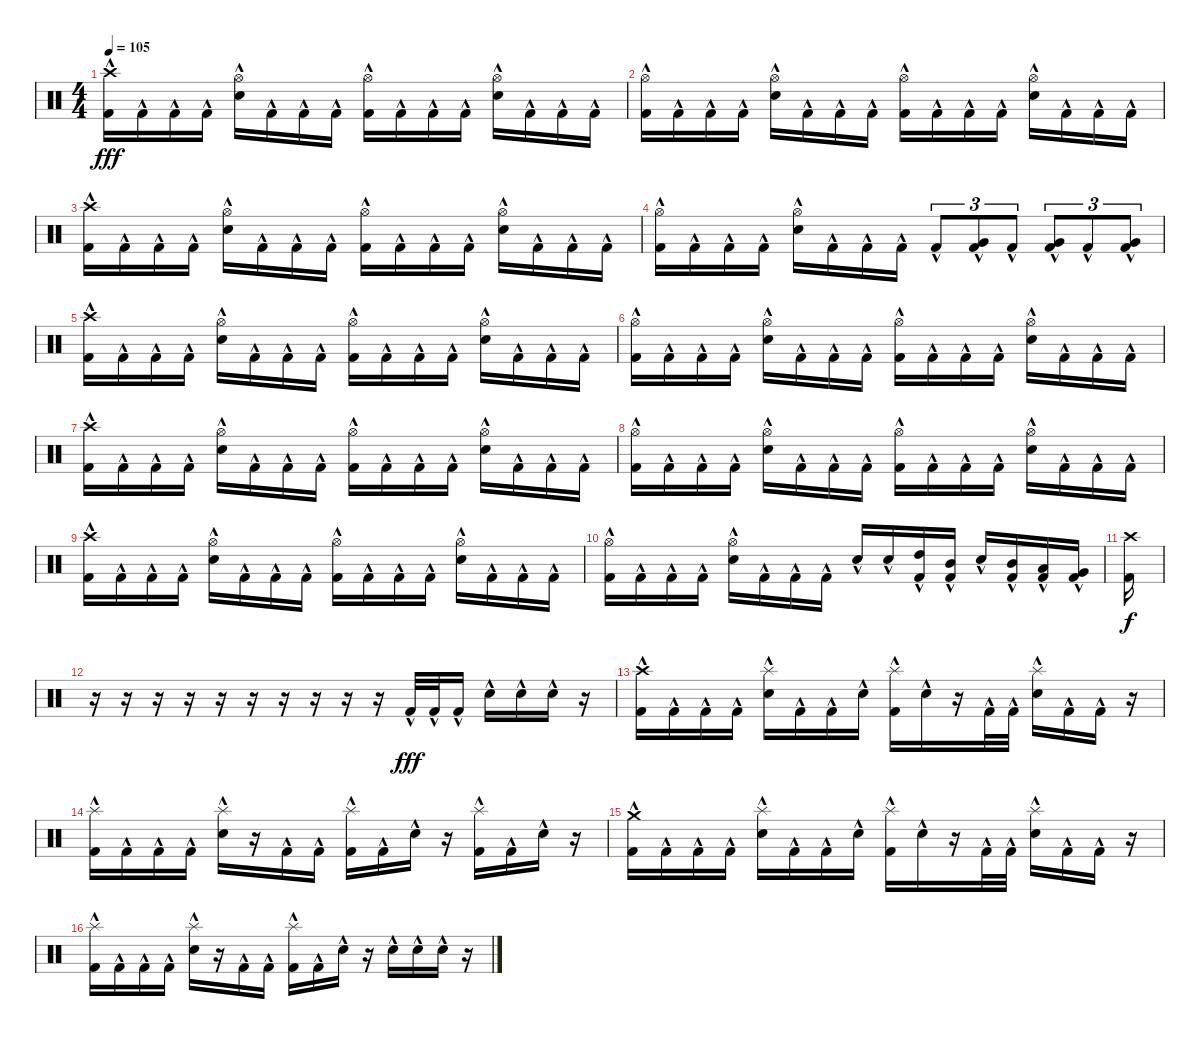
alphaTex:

\track "" {instrument percussion}
\staff {score}
\articulation defaults
\ts (4 4)
\tempo 105
\clef neutral
\ks c
("Kick (hit) 2"{hac} "Crash high (hit)").16{dy fff} "Kick (hit) 2"{hac}.16 "Kick (hit) 2"{hac}.16 "Kick (hit) 2"{hac}.16 ("Electric Snare (hit)"{hac} "Hi-Hat (open)").16 "Kick (hit) 2"{hac}.16 "Kick (hit) 2"{hac}.16 "Kick (hit) 2"{hac}.16 ("Kick (hit) 2"{hac} "Hi-Hat (open)").16 "Kick (hit) 2"{hac}.16 "Kick (hit) 2"{hac}.16 "Kick (hit) 2"{hac}.16 ("Electric Snare (hit)"{hac} "Hi-Hat (open)").16 "Kick (hit) 2"{hac}.16 "Kick (hit) 2"{hac}.16 "Kick (hit) 2"{hac}.16 |
("Kick (hit) 2"{hac} "Hi-Hat (open)").16 "Kick (hit) 2"{hac}.16 "Kick (hit) 2"{hac}.16 "Kick (hit) 2"{hac}.16 ("Electric Snare (hit)"{hac} "Hi-Hat (open)").16 "Kick (hit) 2"{hac}.16 "Kick (hit) 2"{hac}.16 "Kick (hit) 2"{hac}.16 ("Kick (hit) 2"{hac} "Hi-Hat (open)").16 "Kick (hit) 2"{hac}.16 "Kick (hit) 2"{hac}.16 "Kick (hit) 2"{hac}.16 ("Electric Snare (hit)"{hac} "Hi-Hat (open)").16 "Kick (hit) 2"{hac}.16 "Kick (hit) 2"{hac}.16 "Kick (hit) 2"{hac}.16 |
("Kick (hit) 2"{hac} "Crash high (hit)").16 "Kick (hit) 2"{hac}.16 "Kick (hit) 2"{hac}.16 "Kick (hit) 2"{hac}.16 ("Electric Snare (hit)"{hac} "Hi-Hat (open)").16 "Kick (hit) 2"{hac}.16 "Kick (hit) 2"{hac}.16 "Kick (hit) 2"{hac}.16 ("Kick (hit) 2"{hac} "Hi-Hat (open)").16 "Kick (hit) 2"{hac}.16 "Kick (hit) 2"{hac}.16 "Kick (hit) 2"{hac}.16 ("Electric Snare (hit)"{hac} "Hi-Hat (open)").16 "Kick (hit) 2"{hac}.16 "Kick (hit) 2"{hac}.16 "Kick (hit) 2"{hac}.16 |
("Kick (hit) 2"{hac} "Hi-Hat (open)").16 "Kick (hit) 2"{hac}.16 "Kick (hit) 2"{hac}.16 "Kick (hit) 2"{hac}.16 ("Electric Snare (hit)"{hac} "Hi-Hat (open)").16 "Kick (hit) 2"{hac}.16 "Kick (hit) 2"{hac}.16 "Kick (hit) 2"{hac}.16 "Kick (hit) 2"{hac}.8{tu (3 2)} ("Kick (hit) 2"{hac} "Very Low Tom (hit)"{hac}).8{tu (3 2)} "Kick (hit) 2"{hac}.8{tu (3 2)} ("Kick (hit) 2"{hac} "Very Low Tom (hit)"{hac}).8{tu (3 2)} "Kick (hit) 2"{hac}.8{tu (3 2)} ("Kick (hit) 2"{hac} "Very Low Tom (hit)"{hac}).8{tu (3 2)} |
("Kick (hit) 2"{hac} "Crash high (hit)").16 "Kick (hit) 2"{hac}.16 "Kick (hit) 2"{hac}.16 "Kick (hit) 2"{hac}.16 ("Electric Snare (hit)"{hac} "Hi-Hat (open)").16 "Kick (hit) 2"{hac}.16 "Kick (hit) 2"{hac}.16 "Kick (hit) 2"{hac}.16 ("Kick (hit) 2"{hac} "Hi-Hat (open)").16 "Kick (hit) 2"{hac}.16 "Kick (hit) 2"{hac}.16 "Kick (hit) 2"{hac}.16 ("Electric Snare (hit)"{hac} "Hi-Hat (open)").16 "Kick (hit) 2"{hac}.16 "Kick (hit) 2"{hac}.16 "Kick (hit) 2"{hac}.16 |
("Kick (hit) 2"{hac} "Hi-Hat (open)").16 "Kick (hit) 2"{hac}.16 "Kick (hit) 2"{hac}.16 "Kick (hit) 2"{hac}.16 ("Electric Snare (hit)"{hac} "Hi-Hat (open)").16 "Kick (hit) 2"{hac}.16 "Kick (hit) 2"{hac}.16 "Kick (hit) 2"{hac}.16 ("Kick (hit) 2"{hac} "Hi-Hat (open)").16 "Kick (hit) 2"{hac}.16 "Kick (hit) 2"{hac}.16 "Kick (hit) 2"{hac}.16 ("Electric Snare (hit)"{hac} "Hi-Hat (open)").16 "Kick (hit) 2"{hac}.16 "Kick (hit) 2"{hac}.16 "Kick (hit) 2"{hac}.16 |
("Kick (hit) 2"{hac} "Crash high (hit)").16 "Kick (hit) 2"{hac}.16 "Kick (hit) 2"{hac}.16 "Kick (hit) 2"{hac}.16 ("Electric Snare (hit)"{hac} "Hi-Hat (open)").16 "Kick (hit) 2"{hac}.16 "Kick (hit) 2"{hac}.16 "Kick (hit) 2"{hac}.16 ("Kick (hit) 2"{hac} "Hi-Hat (open)").16 "Kick (hit) 2"{hac}.16 "Kick (hit) 2"{hac}.16 "Kick (hit) 2"{hac}.16 ("Electric Snare (hit)"{hac} "Hi-Hat (open)").16 "Kick (hit) 2"{hac}.16 "Kick (hit) 2"{hac}.16 "Kick (hit) 2"{hac}.16 |
("Kick (hit) 2"{hac} "Hi-Hat (open)").16 "Kick (hit) 2"{hac}.16 "Kick (hit) 2"{hac}.16 "Kick (hit) 2"{hac}.16 ("Electric Snare (hit)"{hac} "Hi-Hat (open)").16 "Kick (hit) 2"{hac}.16 "Kick (hit) 2"{hac}.16 "Kick (hit) 2"{hac}.16 ("Kick (hit) 2"{hac} "Hi-Hat (open)").16 "Kick (hit) 2"{hac}.16 "Kick (hit) 2"{hac}.16 "Kick (hit) 2"{hac}.16 ("Electric Snare (hit)"{hac} "Hi-Hat (open)").16 "Kick (hit) 2"{hac}.16 "Kick (hit) 2"{hac}.16 "Kick (hit) 2"{hac}.16 |
("Kick (hit) 2"{hac} "Crash high (hit)").16 "Kick (hit) 2"{hac}.16 "Kick (hit) 2"{hac}.16 "Kick (hit) 2"{hac}.16 ("Electric Snare (hit)"{hac} "Hi-Hat (open)").16 "Kick (hit) 2"{hac}.16 "Kick (hit) 2"{hac}.16 "Kick (hit) 2"{hac}.16 ("Kick (hit) 2"{hac} "Hi-Hat (open)").16 "Kick (hit) 2"{hac}.16 "Kick (hit) 2"{hac}.16 "Kick (hit) 2"{hac}.16 ("Electric Snare (hit)"{hac} "Hi-Hat (open)").16 "Kick (hit) 2"{hac}.16 "Kick (hit) 2"{hac}.16 "Kick (hit) 2"{hac}.16 |
("Kick (hit) 2"{hac} "Hi-Hat (open)").16 "Kick (hit) 2"{hac}.16 "Kick (hit) 2"{hac}.16 "Kick (hit) 2"{hac}.16 ("Electric Snare (hit)"{hac} "Hi-Hat (open)").16 "Kick (hit) 2"{hac}.16 "Kick (hit) 2"{hac}.16 "Kick (hit) 2"{hac}.16 "Electric Snare (hit)"{hac}.16 "Electric Snare (hit)"{hac}.16 ("Kick (hit) 2"{hac} "High Tom (hit)").16 ("Kick (hit) 2"{hac} "Mid Tom (hit)").16 "Electric Snare (hit)"{hac}.16 ("Kick (hit) 2"{hac} "Mid Tom (hit)").16 ("Kick (hit) 2"{hac} "Low Tom (hit)").16 ("Kick (hit) 2"{hac} "Very Low Tom (hit)").16 |
("Crash high (hit)" "Kick (hit) 2").16{dy f} |
r.16 r.16 r.16 r.16 r.16 r.16 r.16 r.16 r.16 r.16 "Kick (hit) 2"{hac}.32{dy fff} "Kick (hit) 2"{hac}.32 "Kick (hit) 2"{hac}.16 "Electric Snare (hit)"{hac}.16 "Electric Snare (hit)"{hac}.16 "Electric Snare (hit)"{hac}.16 r.16 |
("Crash high (hit)" "Kick (hit) 2"{hac}).16 "Kick (hit) 2"{hac}.16 "Kick (hit) 2"{hac}.16 "Kick (hit) 2"{hac}.16 ("Electric Snare (hit)"{hac} "Splash (hit)").16 "Kick (hit) 2"{hac}.16 "Kick (hit) 2"{hac}.16 "Electric Snare (hit)"{hac}.16 ("Kick (hit) 2"{hac} "Splash (hit)").16 "Electric Snare (hit)"{hac}.16 r.16 "Kick (hit) 2"{hac}.32 "Kick (hit) 2"{hac}.32 ("Electric Snare (hit)"{hac} "Splash (hit)").16 "Kick (hit) 2"{hac}.16 "Kick (hit) 2"{hac}.16 r.16 |
("Kick (hit) 2"{hac} "Splash (hit)").16 "Kick (hit) 2"{hac}.16 "Kick (hit) 2"{hac}.16 "Kick (hit) 2"{hac}.16 ("Electric Snare (hit)"{hac} "Splash (hit)").16 r.16 "Kick (hit) 2"{hac}.16 "Kick (hit) 2"{hac}.16 ("Kick (hit) 2"{hac} "Splash (hit)").16 "Kick (hit) 2"{hac}.16 "Electric Snare (hit)"{hac}.16 r.16 ("Kick (hit) 2"{hac} "Splash (hit)").16 "Kick (hit) 2"{hac}.16 "Electric Snare (hit)"{hac}.16 r.16 |
("Crash medium (hit)" "Kick (hit) 2"{hac}).16 "Kick (hit) 2"{hac}.16 "Kick (hit) 2"{hac}.16 "Kick (hit) 2"{hac}.16 ("Electric Snare (hit)"{hac} "Splash (hit)").16 "Kick (hit) 2"{hac}.16 "Kick (hit) 2"{hac}.16 "Electric Snare (hit)"{hac}.16 ("Kick (hit) 2"{hac} "Splash (hit)").16 "Electric Snare (hit)"{hac}.16 r.16 "Kick (hit) 2"{hac}.32 "Kick (hit) 2"{hac}.32 ("Electric Snare (hit)"{hac} "Splash (hit)").16 "Kick (hit) 2"{hac}.16 "Kick (hit) 2"{hac}.16 r.16 |
("Kick (hit) 2"{hac} "Splash (hit)").16 "Kick (hit) 2"{hac}.16 "Kick (hit) 2"{hac}.16 "Kick (hit) 2"{hac}.16 ("Electric Snare (hit)"{hac} "Splash (hit)").16 r.16 "Kick (hit) 2"{hac}.16 "Kick (hit) 2"{hac}.16 ("Kick (hit) 2"{hac} "Splash (hit)").16 "Kick (hit) 2"{hac}.16 "Electric Snare (hit)"{hac}.16 r.16 "Electric Snare (hit)"{hac}.16 "Electric Snare (hit)"{hac}.16 "Electric Snare (hit)"{hac}.16 r.16
